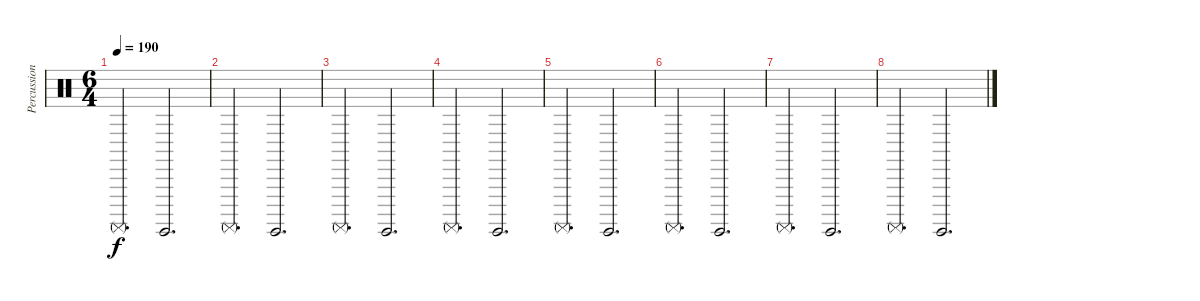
\track ("Percussion" "Percussion") {instrument percussion}
\staff {score}
\articulation defaults
\ts (6 4)
\tempo 190
\clef neutral
\ks c "Surdo (mute)".2{d dy f} "Surdo (hit)".2{d}
|
"Surdo (mute)".2{d} "Surdo (hit)".2{d} |
"Surdo (mute)".2{d} "Surdo (hit)".2{d} |
"Surdo (mute)".2{d} "Surdo (hit)".2{d} |
"Surdo (mute)".2{d} "Surdo (hit)".2{d} |
"Surdo (mute)".2{d} "Surdo (hit)".2{d} |
"Surdo (mute)".2{d} "Surdo (hit)".2{d} |
"Surdo (mute)".2{d} "Surdo (hit)".2{d}
